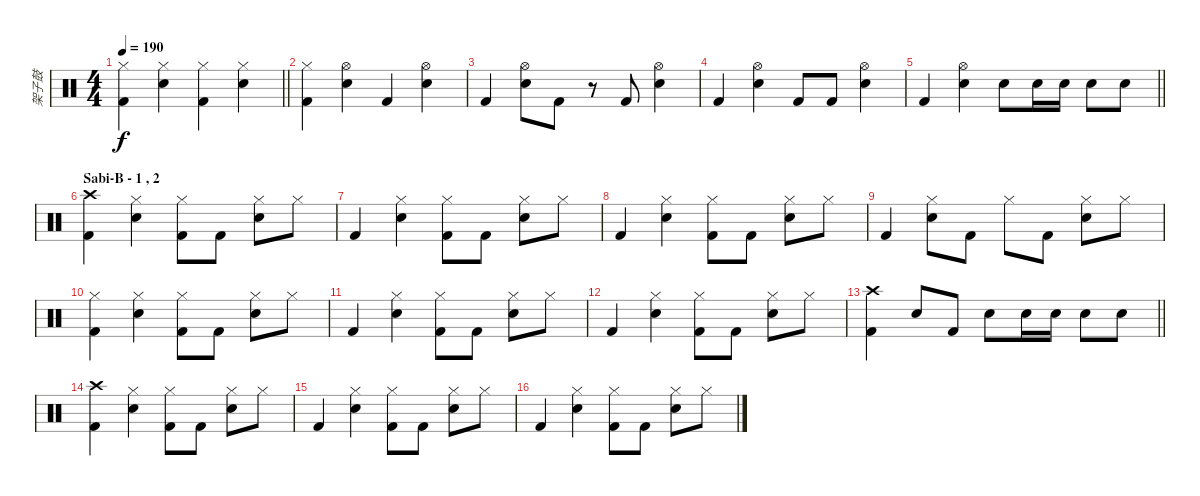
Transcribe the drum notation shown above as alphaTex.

\track ("架子鼓" "架子鼓") {instrument percussion}
\staff {score}
\articulation defaults
\ts (4 4)
\tempo 190
\clef neutral
\barLineRight lightlight
\ks c
("Hi-Hat (closed)" "Kick (hit) 2").4{dy f} ("Hi-Hat (closed)" "Electric Snare (hit)").4 ("Hi-Hat (closed)" "Kick (hit) 2").4 ("Hi-Hat (closed)" "Electric Snare (hit)").4 |
("Hi-Hat (closed)" "Kick (hit) 2").4 ("Hi-Hat (open)" "Electric Snare (hit)").4 "Kick (hit) 2".4 ("Hi-Hat (open)" "Electric Snare (hit)").4 |
"Kick (hit) 2".4 ("Hi-Hat (open)" "Electric Snare (hit)").8 "Kick (hit) 2".8 r.8 "Kick (hit) 2".8 ("Hi-Hat (open)" "Electric Snare (hit)").4 |
"Kick (hit) 2".4 ("Hi-Hat (open)" "Electric Snare (hit)").4 "Kick (hit) 2".8 "Kick (hit) 2".8 ("Hi-Hat (open)" "Electric Snare (hit)").4 |
\barLineRight lightlight "Kick (hit) 2".4
("Hi-Hat (open)" "Electric Snare (hit)").4 "Electric Snare (hit)".8 "Electric Snare (hit)".16 "Electric Snare (hit)".16 "Electric Snare (hit)".8 "Electric Snare (hit)".8 |
\section ("" "Sabi-B - 1 , 2")
("Crash high (hit)" "Kick (hit) 2").4 ("Hi-Hat (closed)" "Electric Snare (hit)").4 ("Hi-Hat (closed)" "Kick (hit) 2").8 "Kick (hit) 2".8 ("Hi-Hat (closed)" "Electric Snare (hit)").8 "Hi-Hat (closed)".8 |
"Kick (hit) 2".4 ("Hi-Hat (closed)" "Electric Snare (hit)").4 ("Hi-Hat (closed)" "Kick (hit) 2").8 "Kick (hit) 2".8 ("Hi-Hat (closed)" "Electric Snare (hit)").8 "Hi-Hat (closed)".8 |
"Kick (hit) 2".4 ("Hi-Hat (closed)" "Electric Snare (hit)").4 ("Hi-Hat (closed)" "Kick (hit) 2").8 "Kick (hit) 2".8 ("Hi-Hat (closed)" "Electric Snare (hit)").8 "Hi-Hat (closed)".8 |
"Kick (hit) 2".4 ("Hi-Hat (closed)" "Electric Snare (hit)").8 "Kick (hit) 2".8 "Hi-Hat (closed)".8 "Kick (hit) 2".8 ("Hi-Hat (closed)" "Electric Snare (hit)").8 "Hi-Hat (closed)".8 |
("Hi-Hat (closed)" "Kick (hit) 2").4 ("Hi-Hat (closed)" "Electric Snare (hit)").4 ("Hi-Hat (closed)" "Kick (hit) 2").8 "Kick (hit) 2".8 ("Hi-Hat (closed)" "Electric Snare (hit)").8 "Hi-Hat (closed)".8 |
"Kick (hit) 2".4 ("Hi-Hat (closed)" "Electric Snare (hit)").4 ("Hi-Hat (closed)" "Kick (hit) 2").8 "Kick (hit) 2".8 ("Hi-Hat (closed)" "Electric Snare (hit)").8 "Hi-Hat (closed)".8 |
"Kick (hit) 2".4 ("Hi-Hat (closed)" "Electric Snare (hit)").4 ("Hi-Hat (closed)" "Kick (hit) 2").8 "Kick (hit) 2".8 ("Hi-Hat (closed)" "Electric Snare (hit)").8 "Hi-Hat (closed)".8 |
\barLineRight lightlight
("Crash high (hit)" "Kick (hit) 2").4 "Electric Snare (hit)".8 "Kick (hit) 2".8 "Electric Snare (hit)".8 "Electric Snare (hit)".16 "Electric Snare (hit)".16 "Electric Snare (hit)".8 "Electric Snare (hit)".8 |
("Crash high (hit)" "Kick (hit) 2").4 ("Hi-Hat (closed)" "Electric Snare (hit)").4 ("Hi-Hat (closed)" "Kick (hit) 2").8 "Kick (hit) 2".8 ("Hi-Hat (closed)" "Electric Snare (hit)").8 "Hi-Hat (closed)".8 |
"Kick (hit) 2".4 ("Hi-Hat (closed)" "Electric Snare (hit)").4 ("Hi-Hat (closed)" "Kick (hit) 2").8 "Kick (hit) 2".8 ("Hi-Hat (closed)" "Electric Snare (hit)").8 "Hi-Hat (closed)".8 |
"Kick (hit) 2".4 ("Hi-Hat (closed)" "Electric Snare (hit)").4 ("Hi-Hat (closed)" "Kick (hit) 2").8 "Kick (hit) 2".8 ("Hi-Hat (closed)" "Electric Snare (hit)").8 "Hi-Hat (closed)".8
